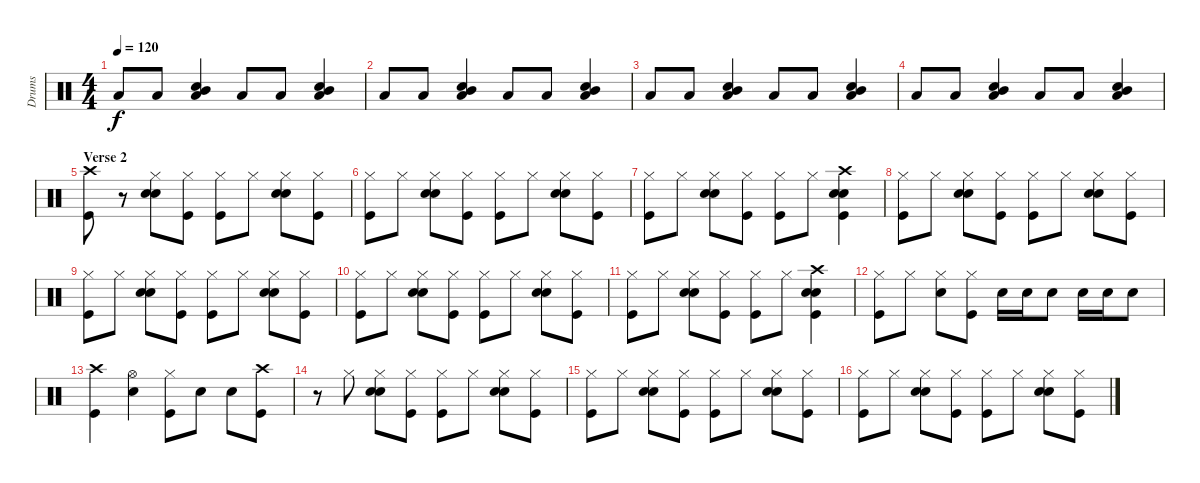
\track ("Drums" "Drums") {instrument percussion}
\staff {score}
\articulation defaults
\ts (4 4)
\tempo 120
\clef neutral
\ks c "Low Tom (hit)".8{dy f} "Low Tom (hit)".8
("Hand Clap (hit)" "Mid Tom (hit)" "Low Tom (hit)").4 "Low Tom (hit)".8 "Low Tom (hit)".8 ("Hand Clap (hit)" "Mid Tom (hit)" "Low Tom (hit)").4 |
"Low Tom (hit)".8 "Low Tom (hit)".8 ("Hand Clap (hit)" "Mid Tom (hit)" "Low Tom (hit)").4 "Low Tom (hit)".8 "Low Tom (hit)".8 ("Hand Clap (hit)" "Mid Tom (hit)" "Low Tom (hit)").4 |
"Low Tom (hit)".8 "Low Tom (hit)".8 ("Hand Clap (hit)" "Mid Tom (hit)" "Low Tom (hit)").4 "Low Tom (hit)".8 "Low Tom (hit)".8 ("Hand Clap (hit)" "Mid Tom (hit)" "Low Tom (hit)").4 |
"Low Tom (hit)".8 "Low Tom (hit)".8 ("Hand Clap (hit)" "Mid Tom (hit)" "Low Tom (hit)").4 "Low Tom (hit)".8 "Low Tom (hit)".8 ("Hand Clap (hit)" "Mid Tom (hit)" "Low Tom (hit)").4 |
\section ("" "Verse 2")
("Crash high (hit)" "Kick (hit)").8 r.8 ("Hi-Hat (closed)" "Snare (hit) 2" "Hand Clap (hit)").8 ("Hi-Hat (closed)" "Kick (hit)").8 ("Hi-Hat (closed)" "Kick (hit)").8 "Hi-Hat (closed)".8 ("Hi-Hat (closed)" "Snare (hit) 2" "Hand Clap (hit)").8 ("Hi-Hat (closed)" "Kick (hit)").8 |
("Hi-Hat (closed)" "Kick (hit)").8 "Hi-Hat (closed)".8 ("Hi-Hat (closed)" "Snare (hit) 2" "Hand Clap (hit)").8 ("Hi-Hat (closed)" "Kick (hit)").8 ("Hi-Hat (closed)" "Kick (hit)").8 "Hi-Hat (closed)".8 ("Hi-Hat (closed)" "Snare (hit) 2" "Hand Clap (hit)").8 ("Hi-Hat (closed)" "Kick (hit)").8 |
("Hi-Hat (closed)" "Kick (hit)").8 "Hi-Hat (closed)".8 ("Hi-Hat (closed)" "Snare (hit) 2" "Hand Clap (hit)").8 ("Hi-Hat (closed)" "Kick (hit)").8 ("Hi-Hat (closed)" "Kick (hit)").8 "Hi-Hat (closed)".8 ("Crash high (hit)" "Snare (hit) 2" "Hand Clap (hit)" "Kick (hit)").4 |
("Hi-Hat (closed)" "Kick (hit)").8 "Hi-Hat (closed)".8 ("Hi-Hat (closed)" "Snare (hit) 2" "Hand Clap (hit)").8 ("Hi-Hat (closed)" "Kick (hit)").8 ("Hi-Hat (closed)" "Kick (hit)").8 "Hi-Hat (closed)".8 ("Hi-Hat (closed)" "Snare (hit) 2" "Hand Clap (hit)").8 ("Hi-Hat (closed)" "Kick (hit)").8 |
("Hi-Hat (closed)" "Kick (hit)").8 "Hi-Hat (closed)".8 ("Hi-Hat (closed)" "Snare (hit) 2" "Hand Clap (hit)").8 ("Hi-Hat (closed)" "Kick (hit)").8 ("Hi-Hat (closed)" "Kick (hit)").8 "Hi-Hat (closed)".8 ("Hi-Hat (closed)" "Snare (hit) 2" "Hand Clap (hit)").8 ("Hi-Hat (closed)" "Kick (hit)").8 |
("Hi-Hat (closed)" "Kick (hit)").8 "Hi-Hat (closed)".8 ("Hi-Hat (closed)" "Snare (hit) 2" "Hand Clap (hit)").8 ("Hi-Hat (closed)" "Kick (hit)").8 ("Hi-Hat (closed)" "Kick (hit)").8 "Hi-Hat (closed)".8 ("Hi-Hat (closed)" "Snare (hit) 2" "Hand Clap (hit)").8 ("Hi-Hat (closed)" "Kick (hit)").8 |
("Hi-Hat (closed)" "Kick (hit)").8 "Hi-Hat (closed)".8 ("Hi-Hat (closed)" "Snare (hit) 2" "Hand Clap (hit)").8 ("Hi-Hat (closed)" "Kick (hit)").8 ("Hi-Hat (closed)" "Kick (hit)").8 "Hi-Hat (closed)".8 ("Crash high (hit)" "Snare (hit) 2" "Hand Clap (hit)" "Kick (hit)").4 |
("Hi-Hat (closed)" "Kick (hit)").8 "Hi-Hat (closed)".8 ("Hi-Hat (closed)" "Snare (hit) 2").8 ("Hi-Hat (closed)" "Kick (hit)").8 "Snare (hit) 2".16 "Snare (hit) 2".16 "Snare (hit) 2".8 "Snare (hit) 2".16 "Snare (hit) 2".16 "Snare (hit) 2".8 |
("Crash high (hit)" "Kick (hit)").4 ("Hi-Hat (open)" "Snare (hit) 2").4 ("Hi-Hat (closed)" "Kick (hit)").8 "Snare (hit) 2".8 "Snare (hit) 2".8 ("Crash high (hit)" "Kick (hit)").8 |
r.8 "Hi-Hat (closed)".8 ("Hi-Hat (closed)" "Snare (hit) 2" "Hand Clap (hit)").8 ("Hi-Hat (closed)" "Kick (hit)").8 ("Hi-Hat (closed)" "Kick (hit)").8 "Hi-Hat (closed)".8 ("Hi-Hat (closed)" "Snare (hit) 2" "Hand Clap (hit)").8 ("Hi-Hat (closed)" "Kick (hit)").8 |
("Hi-Hat (closed)" "Kick (hit)").8 "Hi-Hat (closed)".8 ("Hi-Hat (closed)" "Snare (hit) 2" "Hand Clap (hit)").8 ("Hi-Hat (closed)" "Kick (hit)").8 ("Hi-Hat (closed)" "Kick (hit)").8 "Hi-Hat (closed)".8 ("Hi-Hat (closed)" "Snare (hit) 2" "Hand Clap (hit)").8 ("Hi-Hat (closed)" "Kick (hit)").8 |
("Hi-Hat (closed)" "Kick (hit)").8 "Hi-Hat (closed)".8 ("Hi-Hat (closed)" "Snare (hit) 2" "Hand Clap (hit)").8 ("Hi-Hat (closed)" "Kick (hit)").8 ("Hi-Hat (closed)" "Kick (hit)").8 "Hi-Hat (closed)".8 ("Hi-Hat (closed)" "Snare (hit) 2" "Hand Clap (hit)").8 ("Hi-Hat (closed)" "Kick (hit)").8
